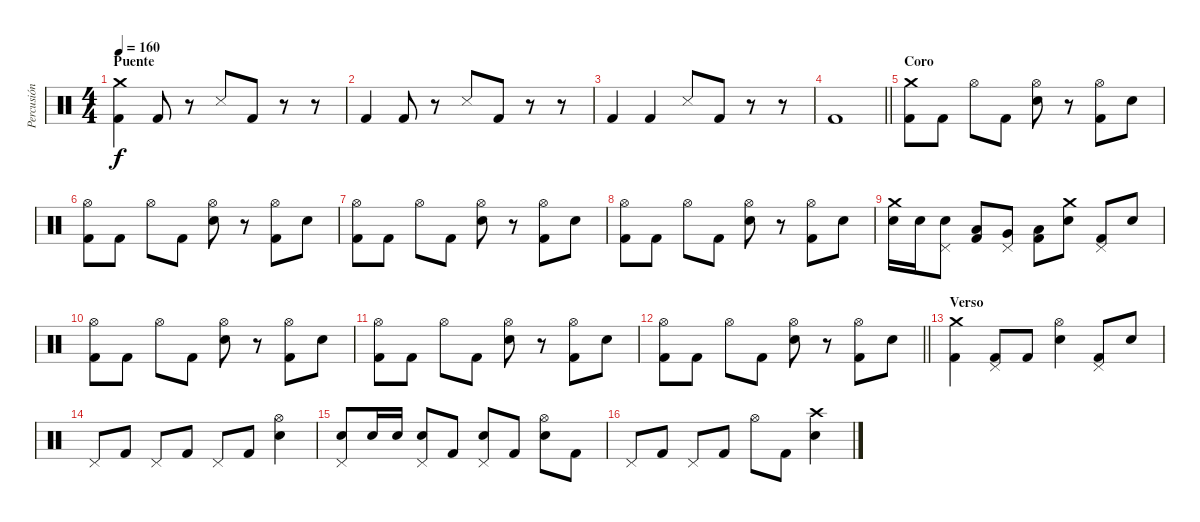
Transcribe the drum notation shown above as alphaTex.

\track ("Percusión" "Percusión") {instrument percussion}
\staff {score}
\articulation defaults
\ts (4 4)
\section ("" "Puente")
\tempo 160
\clef neutral
\ks c
("Crash medium (hit)" "Kick (hit) 2").4{dy f} "Kick (hit) 2".8 r.8 "Metronome (hit)".8 "Kick (hit) 2".8 r.8 r.8 |
"Kick (hit) 2".4 "Kick (hit) 2".8 r.8 "Metronome (hit)".8 "Kick (hit) 2".8 r.8 r.8 |
"Kick (hit) 2".4 "Kick (hit) 2".4 "Metronome (hit)".8 "Kick (hit) 2".8 r.8 r.8 |
\barLineRight lightlight "Kick (hit) 2".1
|
\section ("" "Coro")
("Crash medium (hit)" "Kick (hit) 2").8 "Kick (hit) 2".8 "Hi-Hat (open)".8 "Kick (hit) 2".8 ("Hi-Hat (open)" "Snare (hit) 2").8 r.8 ("Hi-Hat (open)" "Kick (hit) 2").8 "Snare (hit) 2".8 |
("Hi-Hat (open)" "Kick (hit) 2").8 "Kick (hit) 2".8 "Hi-Hat (open)".8 "Kick (hit) 2".8 ("Hi-Hat (open)" "Snare (hit) 2").8 r.8 ("Hi-Hat (open)" "Kick (hit) 2").8 "Snare (hit) 2".8 |
("Hi-Hat (open)" "Kick (hit) 2").8 "Kick (hit) 2".8 "Hi-Hat (open)".8 "Kick (hit) 2".8 ("Hi-Hat (open)" "Snare (hit) 2").8 r.8 ("Hi-Hat (open)" "Kick (hit) 2").8 "Snare (hit) 2".8 |
("Hi-Hat (open)" "Kick (hit) 2").8 "Kick (hit) 2".8 "Hi-Hat (open)".8 "Kick (hit) 2".8 ("Hi-Hat (open)" "Snare (hit) 2").8 r.8 ("Hi-Hat (open)" "Kick (hit) 2").8 "Snare (hit) 2".8 |
("Crash medium (hit)" "Snare (hit) 2").16 "Snare (hit) 2".16 ("Pedal Hi-Hat (hit)" "Snare (hit) 2").8 ("Low Tom (hit)" "Kick (hit) 2").8 ("Pedal Hi-Hat (hit)" "Very Low Tom (hit)").8 ("Low Floor Tom (hit)" "Kick (hit) 2").8 ("Crash medium (hit)" "Snare (hit) 2").8 ("Pedal Hi-Hat (hit)" "Kick (hit) 2").8 "Snare (hit) 2".8 |
("Hi-Hat (open)" "Kick (hit) 2").8 "Kick (hit) 2".8 "Hi-Hat (open)".8 "Kick (hit) 2".8 ("Hi-Hat (open)" "Snare (hit) 2").8 r.8 ("Hi-Hat (open)" "Kick (hit) 2").8 "Snare (hit) 2".8 |
("Hi-Hat (open)" "Kick (hit) 2").8 "Kick (hit) 2".8 "Hi-Hat (open)".8 "Kick (hit) 2".8 ("Hi-Hat (open)" "Snare (hit) 2").8 r.8 ("Hi-Hat (open)" "Kick (hit) 2").8 "Snare (hit) 2".8 |
\barLineRight lightlight
("Hi-Hat (open)" "Kick (hit) 2").8 "Kick (hit) 2".8 "Hi-Hat (open)".8 "Kick (hit) 2".8 ("Hi-Hat (open)" "Snare (hit) 2").8 r.8 ("Hi-Hat (open)" "Kick (hit) 2").8 "Snare (hit) 2".8 |
\section ("" "Verso")
("Crash medium (hit)" "Kick (hit) 2").4 ("Pedal Hi-Hat (hit)" "Kick (hit) 2").8 "Kick (hit) 2".8 ("Hi-Hat (open)" "Snare (hit) 2").4 ("Pedal Hi-Hat (hit)" "Kick (hit) 2").8 "Snare (hit) 2".8 |
"Pedal Hi-Hat (hit)".8 "Kick (hit) 2".8 "Pedal Hi-Hat (hit)".8 "Kick (hit) 2".8 "Pedal Hi-Hat (hit)".8 "Kick (hit) 2".8 ("Hi-Hat (open)" "Snare (hit) 2").4 |
("Pedal Hi-Hat (hit)" "Snare (hit) 2").8 "Snare (hit) 2".16 "Snare (hit) 2".16 ("Pedal Hi-Hat (hit)" "Snare (hit) 2").8 "Kick (hit) 2".8 ("Pedal Hi-Hat (hit)" "Snare (hit) 2").8 "Kick (hit) 2".8 ("Hi-Hat (open)" "Snare (hit) 2").8 "Kick (hit) 2".8 |
"Pedal Hi-Hat (hit)".8 "Kick (hit) 2".8 "Pedal Hi-Hat (hit)".8 "Kick (hit) 2".8 "Hi-Hat (open)".8 "Kick (hit) 2".8 ("Crash high (hit)" "Snare (hit) 2").4
